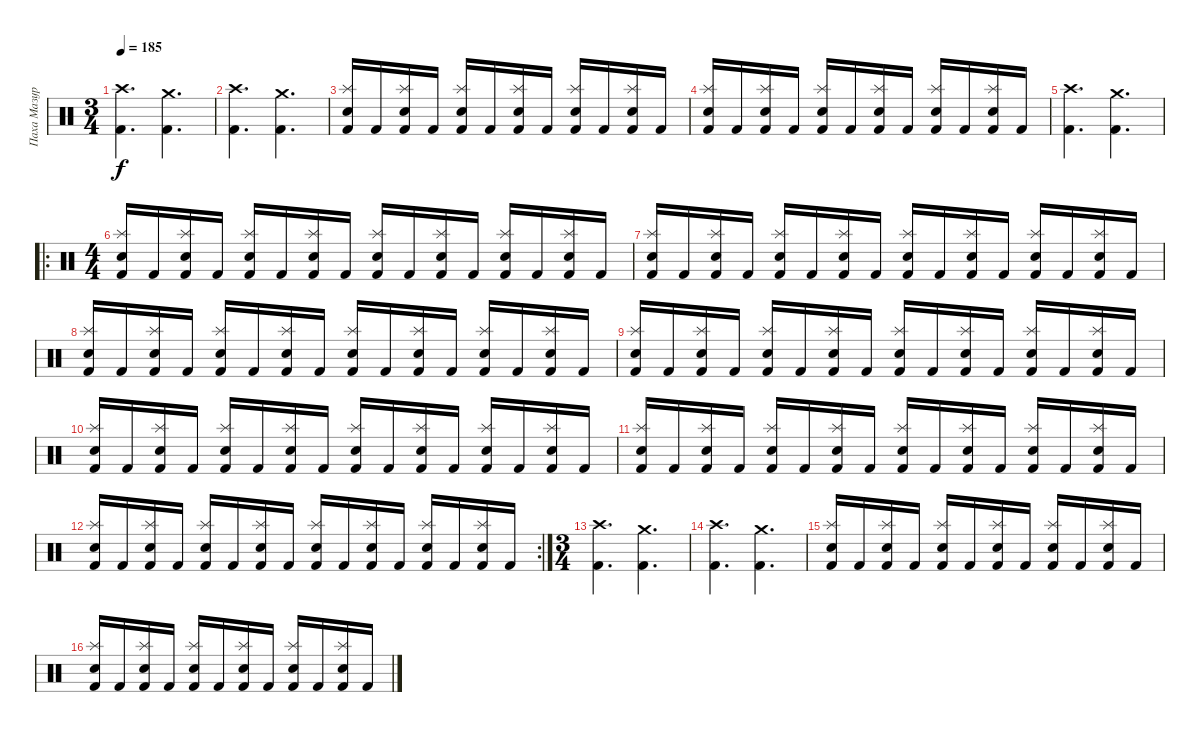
\track ("Паха Мазуркевич" "Паха Мазур") {instrument percussion}
\staff {score}
\articulation defaults
\ts (3 4)
\tempo 185
\clef neutral
\ks c
("Crash high (hit)" "Kick (hit) 2").4{d dy f} ("Crash medium (hit)" "Kick (hit) 2").4{d} |
("Crash high (hit)" "Kick (hit) 2").4{d} ("Crash medium (hit)" "Kick (hit) 2").4{d} |
("Splash (hit)" "Snare (hit) 2" "Kick (hit) 2").16 "Kick (hit) 2".16 ("Splash (hit)" "Snare (hit) 2" "Kick (hit) 2").16 "Kick (hit) 2".16 ("Splash (hit)" "Snare (hit) 2" "Kick (hit) 2").16 "Kick (hit) 2".16 ("Splash (hit)" "Snare (hit) 2" "Kick (hit) 2").16 "Kick (hit) 2".16 ("Splash (hit)" "Snare (hit) 2" "Kick (hit) 2").16 "Kick (hit) 2".16 ("Splash (hit)" "Snare (hit) 2" "Kick (hit) 2").16 "Kick (hit) 2".16 |
("Splash (hit)" "Snare (hit) 2" "Kick (hit) 2").16 "Kick (hit) 2".16 ("Splash (hit)" "Snare (hit) 2" "Kick (hit) 2").16 "Kick (hit) 2".16 ("Splash (hit)" "Snare (hit) 2" "Kick (hit) 2").16 "Kick (hit) 2".16 ("Splash (hit)" "Snare (hit) 2" "Kick (hit) 2").16 "Kick (hit) 2".16 ("Splash (hit)" "Snare (hit) 2" "Kick (hit) 2").16 "Kick (hit) 2".16 ("Splash (hit)" "Snare (hit) 2" "Kick (hit) 2").16 "Kick (hit) 2".16 |
("Crash high (hit)" "Kick (hit) 2").4{d} ("Crash medium (hit)" "Kick (hit) 2").4{d} |
\ro
\ts (4 4)
("Splash (hit)" "Snare (hit) 2" "Kick (hit) 2").16 "Kick (hit) 2".16 ("Splash (hit)" "Snare (hit) 2" "Kick (hit) 2").16 "Kick (hit) 2".16 ("Splash (hit)" "Snare (hit) 2" "Kick (hit) 2").16 "Kick (hit) 2".16 ("Splash (hit)" "Snare (hit) 2" "Kick (hit) 2").16 "Kick (hit) 2".16 ("Splash (hit)" "Snare (hit) 2" "Kick (hit) 2").16 "Kick (hit) 2".16 ("Splash (hit)" "Snare (hit) 2" "Kick (hit) 2").16 "Kick (hit) 2".16 ("Splash (hit)" "Snare (hit) 2" "Kick (hit) 2").16 "Kick (hit) 2".16 ("Splash (hit)" "Snare (hit) 2" "Kick (hit) 2").16 "Kick (hit) 2".16 |
("Splash (hit)" "Snare (hit) 2" "Kick (hit) 2").16 "Kick (hit) 2".16 ("Splash (hit)" "Snare (hit) 2" "Kick (hit) 2").16 "Kick (hit) 2".16 ("Splash (hit)" "Snare (hit) 2" "Kick (hit) 2").16 "Kick (hit) 2".16 ("Splash (hit)" "Snare (hit) 2" "Kick (hit) 2").16 "Kick (hit) 2".16 ("Splash (hit)" "Snare (hit) 2" "Kick (hit) 2").16 "Kick (hit) 2".16 ("Splash (hit)" "Snare (hit) 2" "Kick (hit) 2").16 "Kick (hit) 2".16 ("Splash (hit)" "Snare (hit) 2" "Kick (hit) 2").16 "Kick (hit) 2".16 ("Splash (hit)" "Snare (hit) 2" "Kick (hit) 2").16 "Kick (hit) 2".16 |
("Splash (hit)" "Snare (hit) 2" "Kick (hit) 2").16 "Kick (hit) 2".16 ("Splash (hit)" "Snare (hit) 2" "Kick (hit) 2").16 "Kick (hit) 2".16 ("Splash (hit)" "Snare (hit) 2" "Kick (hit) 2").16 "Kick (hit) 2".16 ("Splash (hit)" "Snare (hit) 2" "Kick (hit) 2").16 "Kick (hit) 2".16 ("Splash (hit)" "Snare (hit) 2" "Kick (hit) 2").16 "Kick (hit) 2".16 ("Splash (hit)" "Snare (hit) 2" "Kick (hit) 2").16 "Kick (hit) 2".16 ("Splash (hit)" "Snare (hit) 2" "Kick (hit) 2").16 "Kick (hit) 2".16 ("Splash (hit)" "Snare (hit) 2" "Kick (hit) 2").16 "Kick (hit) 2".16 |
("Splash (hit)" "Snare (hit) 2" "Kick (hit) 2").16 "Kick (hit) 2".16 ("Splash (hit)" "Snare (hit) 2" "Kick (hit) 2").16 "Kick (hit) 2".16 ("Splash (hit)" "Snare (hit) 2" "Kick (hit) 2").16 "Kick (hit) 2".16 ("Splash (hit)" "Snare (hit) 2" "Kick (hit) 2").16 "Kick (hit) 2".16 ("Splash (hit)" "Snare (hit) 2" "Kick (hit) 2").16 "Kick (hit) 2".16 ("Splash (hit)" "Snare (hit) 2" "Kick (hit) 2").16 "Kick (hit) 2".16 ("Splash (hit)" "Snare (hit) 2" "Kick (hit) 2").16 "Kick (hit) 2".16 ("Splash (hit)" "Snare (hit) 2" "Kick (hit) 2").16 "Kick (hit) 2".16 |
("Splash (hit)" "Snare (hit) 2" "Kick (hit) 2").16 "Kick (hit) 2".16 ("Splash (hit)" "Snare (hit) 2" "Kick (hit) 2").16 "Kick (hit) 2".16 ("Splash (hit)" "Snare (hit) 2" "Kick (hit) 2").16 "Kick (hit) 2".16 ("Splash (hit)" "Snare (hit) 2" "Kick (hit) 2").16 "Kick (hit) 2".16 ("Splash (hit)" "Snare (hit) 2" "Kick (hit) 2").16 "Kick (hit) 2".16 ("Splash (hit)" "Snare (hit) 2" "Kick (hit) 2").16 "Kick (hit) 2".16 ("Splash (hit)" "Snare (hit) 2" "Kick (hit) 2").16 "Kick (hit) 2".16 ("Splash (hit)" "Snare (hit) 2" "Kick (hit) 2").16 "Kick (hit) 2".16 |
("Splash (hit)" "Snare (hit) 2" "Kick (hit) 2").16 "Kick (hit) 2".16 ("Splash (hit)" "Snare (hit) 2" "Kick (hit) 2").16 "Kick (hit) 2".16 ("Splash (hit)" "Snare (hit) 2" "Kick (hit) 2").16 "Kick (hit) 2".16 ("Splash (hit)" "Snare (hit) 2" "Kick (hit) 2").16 "Kick (hit) 2".16 ("Splash (hit)" "Snare (hit) 2" "Kick (hit) 2").16 "Kick (hit) 2".16 ("Splash (hit)" "Snare (hit) 2" "Kick (hit) 2").16 "Kick (hit) 2".16 ("Splash (hit)" "Snare (hit) 2" "Kick (hit) 2").16 "Kick (hit) 2".16 ("Splash (hit)" "Snare (hit) 2" "Kick (hit) 2").16 "Kick (hit) 2".16 |
\rc 2
("Splash (hit)" "Snare (hit) 2" "Kick (hit) 2").16 "Kick (hit) 2".16 ("Splash (hit)" "Snare (hit) 2" "Kick (hit) 2").16 "Kick (hit) 2".16 ("Splash (hit)" "Snare (hit) 2" "Kick (hit) 2").16 "Kick (hit) 2".16 ("Splash (hit)" "Snare (hit) 2" "Kick (hit) 2").16 "Kick (hit) 2".16 ("Splash (hit)" "Snare (hit) 2" "Kick (hit) 2").16 "Kick (hit) 2".16 ("Splash (hit)" "Snare (hit) 2" "Kick (hit) 2").16 "Kick (hit) 2".16 ("Splash (hit)" "Snare (hit) 2" "Kick (hit) 2").16 "Kick (hit) 2".16 ("Splash (hit)" "Snare (hit) 2" "Kick (hit) 2").16 "Kick (hit) 2".16 |
\ts (3 4)
("Crash high (hit)" "Kick (hit) 2").4{d} ("Crash medium (hit)" "Kick (hit) 2").4{d} |
("Crash high (hit)" "Kick (hit) 2").4{d} ("Crash medium (hit)" "Kick (hit) 2").4{d} |
("Splash (hit)" "Snare (hit) 2" "Kick (hit) 2").16 "Kick (hit) 2".16 ("Splash (hit)" "Snare (hit) 2" "Kick (hit) 2").16 "Kick (hit) 2".16 ("Splash (hit)" "Snare (hit) 2" "Kick (hit) 2").16 "Kick (hit) 2".16 ("Splash (hit)" "Snare (hit) 2" "Kick (hit) 2").16 "Kick (hit) 2".16 ("Splash (hit)" "Snare (hit) 2" "Kick (hit) 2").16 "Kick (hit) 2".16 ("Splash (hit)" "Snare (hit) 2" "Kick (hit) 2").16 "Kick (hit) 2".16 |
("Splash (hit)" "Snare (hit) 2" "Kick (hit) 2").16 "Kick (hit) 2".16 ("Splash (hit)" "Snare (hit) 2" "Kick (hit) 2").16 "Kick (hit) 2".16 ("Splash (hit)" "Snare (hit) 2" "Kick (hit) 2").16 "Kick (hit) 2".16 ("Splash (hit)" "Snare (hit) 2" "Kick (hit) 2").16 "Kick (hit) 2".16 ("Splash (hit)" "Snare (hit) 2" "Kick (hit) 2").16 "Kick (hit) 2".16 ("Splash (hit)" "Snare (hit) 2" "Kick (hit) 2").16 "Kick (hit) 2".16
